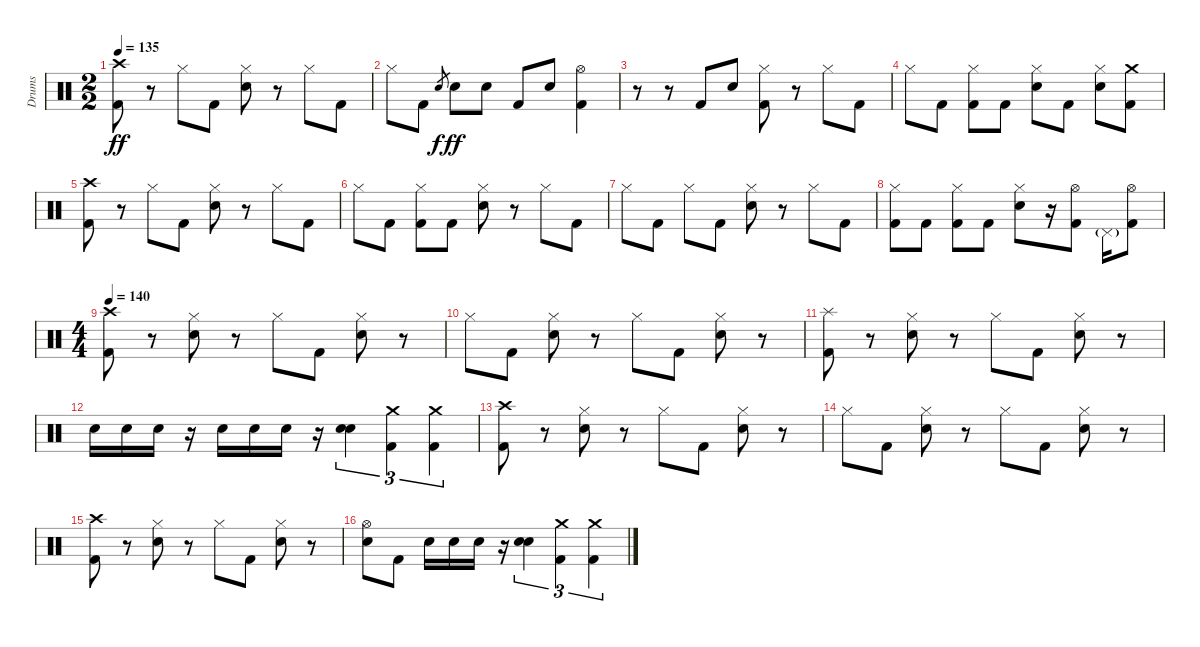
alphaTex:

\track ("Drums" "Drums") {instrument percussion}
\staff {score}
\articulation defaults
\ts (2 2)
\tempo 135
\clef neutral
\ks c
("Crash high (hit)" "Kick (hit) 2").8{dy ff} r.8 "Hi-Hat (closed)".8 "Kick (hit) 2".8 ("Hi-Hat (closed)" "Snare (hit) 2").8 r.8 "Hi-Hat (closed)".8 "Kick (hit) 2".8 |
"Hi-Hat (closed)".8 "Kick (hit) 2".8 "Snare (hit) 2".8{gr dy f} "Snare (hit) 2".8{dy ff} "Snare (hit) 2".8 "Kick (hit) 2".8 "Snare (hit) 2".8 ("Hi-Hat (open)" "Kick (hit) 2").4 |
r.8 r.8 "Kick (hit) 2".8 "Snare (hit) 2".8 ("Hi-Hat (closed)" "Kick (hit) 2").8 r.8 "Hi-Hat (closed)".8 "Kick (hit) 2".8 |
"Hi-Hat (closed)".8 "Kick (hit) 2".8 ("Hi-Hat (closed)" "Kick (hit) 2").8 "Kick (hit) 2".8 ("Hi-Hat (closed)" "Snare (hit) 2").8 "Kick (hit) 2".8 ("Hi-Hat (closed)" "Snare (hit) 2").8 ("Crash medium (hit)" "Kick (hit) 2").8 |
("Crash high (hit)" "Kick (hit) 2").8 r.8 "Hi-Hat (closed)".8 "Kick (hit) 2".8 ("Hi-Hat (closed)" "Snare (hit) 2").8 r.8 "Hi-Hat (closed)".8 "Kick (hit) 2".8 |
"Hi-Hat (closed)".8 "Kick (hit) 2".8 ("Hi-Hat (closed)" "Kick (hit) 2").8 "Kick (hit) 2".8 ("Hi-Hat (closed)" "Snare (hit) 2").8 r.8 "Hi-Hat (closed)".8 "Kick (hit) 2".8 |
"Hi-Hat (closed)".8 "Kick (hit) 2".8 "Hi-Hat (closed)".8 "Kick (hit) 2".8 ("Hi-Hat (closed)" "Snare (hit) 2").8 r.8 "Hi-Hat (closed)".8 "Kick (hit) 2".8 |
("Hi-Hat (closed)" "Kick (hit) 2").8 "Kick (hit) 2".8 ("Hi-Hat (closed)" "Kick (hit) 2").8 "Kick (hit) 2".8 ("Hi-Hat (closed)" "Snare (hit) 2").8 r.16 ("Hi-Hat (open)" "Kick (hit) 2").8 "Pedal Hi-Hat (hit)"{g}.16 ("Hi-Hat (open)" "Kick (hit) 2").8 |
\ts (4 4)
\tempo 140
("Crash high (hit)" "Kick (hit) 2").8 r.8 ("Hi-Hat (closed)" "Snare (hit) 2").8 r.8 "Hi-Hat (closed)".8 "Kick (hit) 2".8 ("Hi-Hat (closed)" "Snare (hit) 2").8 r.8 |
"Hi-Hat (closed)".8 "Kick (hit) 2".8 ("Hi-Hat (closed)" "Snare (hit) 2").8 r.8 "Hi-Hat (closed)".8 "Kick (hit) 2".8 ("Hi-Hat (closed)" "Snare (hit) 2").8 r.8 |
("Splash (hit)" "Kick (hit) 2").8 r.8 ("Hi-Hat (closed)" "Snare (hit) 2").8 r.8 "Hi-Hat (closed)".8 "Kick (hit) 2".8 ("Hi-Hat (closed)" "Snare (hit) 2").8 r.8 |
"Snare (hit) 2".16 "Snare (hit) 2".16 "Snare (hit) 2".16 r.16 "Snare (hit) 2".16 "Snare (hit) 2".16 "Snare (hit) 2".16 r.16 ("Snare (hit) 2" "Snare (hit) 2").4{tu (3 2) bd 480} ("Crash medium (hit)" "Kick (hit) 2").4{tu (3 2)} ("Crash medium (hit)" "Kick (hit) 2").4{tu (3 2)} |
("Crash high (hit)" "Kick (hit) 2").8 r.8 ("Hi-Hat (closed)" "Snare (hit) 2").8 r.8 "Hi-Hat (closed)".8 "Kick (hit) 2".8 ("Hi-Hat (closed)" "Snare (hit) 2").8 r.8 |
"Hi-Hat (closed)".8 "Kick (hit) 2".8 ("Hi-Hat (closed)" "Snare (hit) 2").8 r.8 "Hi-Hat (closed)".8 "Kick (hit) 2".8 ("Hi-Hat (closed)" "Snare (hit) 2").8 r.8 |
("Crash high (hit)" "Kick (hit) 2").8 r.8 ("Hi-Hat (closed)" "Snare (hit) 2").8 r.8 "Hi-Hat (closed)".8 "Kick (hit) 2".8 ("Hi-Hat (closed)" "Snare (hit) 2").8 r.8 |
("Hi-Hat (open)" "Snare (hit) 2").8 "Kick (hit) 2".8 "Snare (hit) 2".16 "Snare (hit) 2".16 "Snare (hit) 2".16 r.16 ("Snare (hit) 2" "Snare (hit) 2").4{tu (3 2) bd 480} ("Crash medium (hit)" "Kick (hit) 2").4{tu (3 2)} ("Crash medium (hit)" "Kick (hit) 2").4{tu (3 2)}
